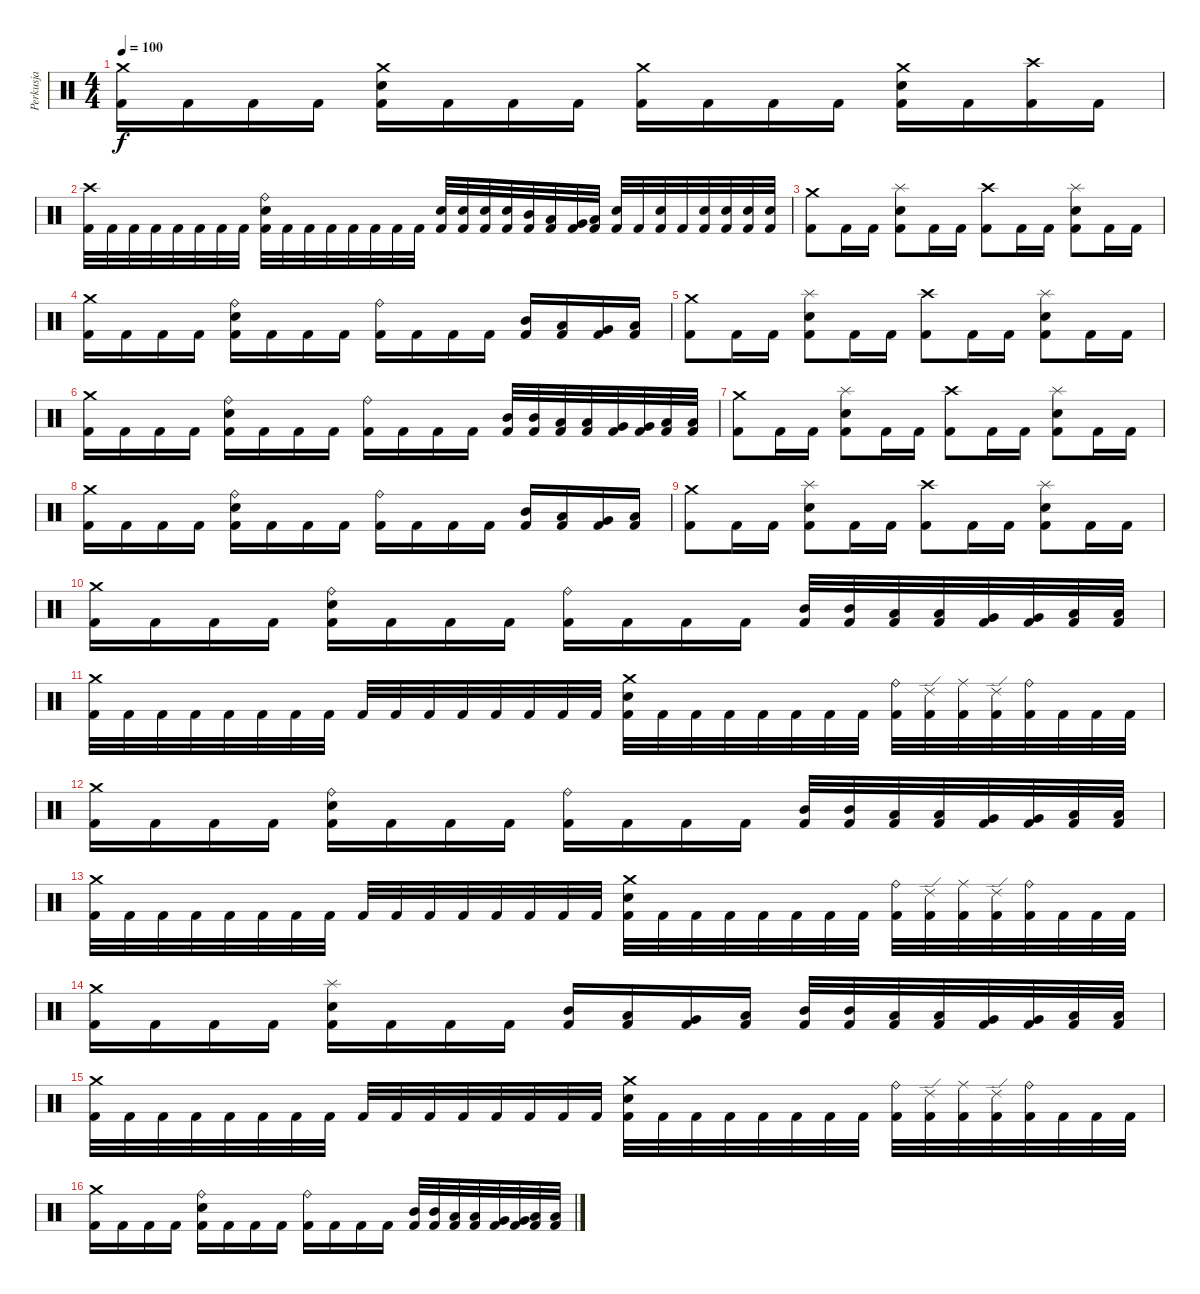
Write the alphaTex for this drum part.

\track ("Perkusja" "Perkusja") {instrument percussion}
\staff {score}
\articulation defaults
\ts (4 4)
\tempo 100
\clef neutral
\ks c
("Crash medium (hit)" "Kick (hit) 2").16{dy f} "Kick (hit) 2".16 "Kick (hit) 2".16 "Kick (hit) 2".16 ("Crash medium (hit)" "Electric Snare (hit)" "Kick (hit) 2").16 "Kick (hit) 2".16 "Kick (hit) 2".16 "Kick (hit) 2".16 ("Crash medium (hit)" "Kick (hit) 2").16 "Kick (hit) 2".16 "Kick (hit) 2".16 "Kick (hit) 2".16 ("Crash medium (hit)" "Electric Snare (hit)" "Kick (hit) 2").16 "Kick (hit) 2".16 ("Crash high (hit)" "Kick (hit) 2").16 "Kick (hit) 2".16 |
("Crash high (hit)" "Kick (hit) 2").32 "Kick (hit) 2".32 "Kick (hit) 2".32 "Kick (hit) 2".32 "Kick (hit) 2".32 "Kick (hit) 2".32 "Kick (hit) 2".32 "Kick (hit) 2".32 ("Ride (bell)" "Electric Snare (hit)" "Kick (hit) 2").32 "Kick (hit) 2".32 "Kick (hit) 2".32 "Kick (hit) 2".32 "Kick (hit) 2".32 "Kick (hit) 2".32 "Kick (hit) 2".32 "Kick (hit) 2".32 ("Electric Snare (hit)" "Kick (hit) 2").32 ("Electric Snare (hit)" "Kick (hit) 2").32 ("Electric Snare (hit)" "Kick (hit) 2").32 ("Electric Snare (hit)" "Kick (hit) 2").32 ("Mid Tom (hit)" "Kick (hit) 2").32 ("Low Tom (hit)" "Kick (hit) 2").32 ("Very Low Tom (hit)" "Kick (hit) 2").32 ("Low Floor Tom (hit)" "Kick (hit) 2").32 ("Electric Snare (hit)" "Kick (hit) 2").32 "Kick (hit) 2".32 ("Electric Snare (hit)" "Kick (hit) 2").32 "Kick (hit) 2".32 ("Electric Snare (hit)" "Kick (hit) 2").32 ("Electric Snare (hit)" "Kick (hit) 2").32 ("Electric Snare (hit)" "Kick (hit) 2").32 ("Electric Snare (hit)" "Kick (hit) 2").32 |
("Crash medium (hit)" "Kick (hit) 2").8 "Kick (hit) 2".16 "Kick (hit) 2".16 ("Splash (hit)" "Electric Snare (hit)" "Kick (hit) 2").8 "Kick (hit) 2".16 "Kick (hit) 2".16 ("Crash high (hit)" "Kick (hit) 2").8 "Kick (hit) 2".16 "Kick (hit) 2".16 ("Splash (hit)" "Electric Snare (hit)" "Kick (hit) 2").8 "Kick (hit) 2".16 "Kick (hit) 2".16 |
("Crash medium (hit)" "Kick (hit) 2").16 "Kick (hit) 2".16 "Kick (hit) 2".16 "Kick (hit) 2".16 ("Ride (bell)" "Electric Snare (hit)" "Kick (hit) 2").16 "Kick (hit) 2".16 "Kick (hit) 2".16 "Kick (hit) 2".16 ("Ride (bell)" "Kick (hit) 2").16 "Kick (hit) 2".16 "Kick (hit) 2".16 "Kick (hit) 2".16 ("Mid Tom (hit)" "Kick (hit) 2").16 ("Low Tom (hit)" "Kick (hit) 2").16 ("Very Low Tom (hit)" "Kick (hit) 2").16 ("Low Floor Tom (hit)" "Kick (hit) 2").16 |
("Crash medium (hit)" "Kick (hit) 2").8 "Kick (hit) 2".16 "Kick (hit) 2".16 ("Splash (hit)" "Electric Snare (hit)" "Kick (hit) 2").8 "Kick (hit) 2".16 "Kick (hit) 2".16 ("Crash high (hit)" "Kick (hit) 2").8 "Kick (hit) 2".16 "Kick (hit) 2".16 ("Splash (hit)" "Electric Snare (hit)" "Kick (hit) 2").8 "Kick (hit) 2".16 "Kick (hit) 2".16 |
("Crash medium (hit)" "Kick (hit) 2").16 "Kick (hit) 2".16 "Kick (hit) 2".16 "Kick (hit) 2".16 ("Ride (bell)" "Electric Snare (hit)" "Kick (hit) 2").16 "Kick (hit) 2".16 "Kick (hit) 2".16 "Kick (hit) 2".16 ("Ride (bell)" "Kick (hit) 2").16 "Kick (hit) 2".16 "Kick (hit) 2".16 "Kick (hit) 2".16 ("Mid Tom (hit)" "Kick (hit) 2").32 ("Mid Tom (hit)" "Kick (hit) 2").32 ("Low Tom (hit)" "Kick (hit) 2").32 ("Low Tom (hit)" "Kick (hit) 2").32 ("Very Low Tom (hit)" "Kick (hit) 2").32 ("Very Low Tom (hit)" "Kick (hit) 2").32 ("Low Floor Tom (hit)" "Kick (hit) 2").32 ("Low Floor Tom (hit)" "Kick (hit) 2").32 |
("Crash medium (hit)" "Kick (hit) 2").8 "Kick (hit) 2".16 "Kick (hit) 2".16 ("Splash (hit)" "Electric Snare (hit)" "Kick (hit) 2").8 "Kick (hit) 2".16 "Kick (hit) 2".16 ("Crash high (hit)" "Kick (hit) 2").8 "Kick (hit) 2".16 "Kick (hit) 2".16 ("Splash (hit)" "Electric Snare (hit)" "Kick (hit) 2").8 "Kick (hit) 2".16 "Kick (hit) 2".16 |
("Crash medium (hit)" "Kick (hit) 2").16 "Kick (hit) 2".16 "Kick (hit) 2".16 "Kick (hit) 2".16 ("Ride (bell)" "Electric Snare (hit)" "Kick (hit) 2").16 "Kick (hit) 2".16 "Kick (hit) 2".16 "Kick (hit) 2".16 ("Ride (bell)" "Kick (hit) 2").16 "Kick (hit) 2".16 "Kick (hit) 2".16 "Kick (hit) 2".16 ("Mid Tom (hit)" "Kick (hit) 2").16 ("Low Tom (hit)" "Kick (hit) 2").16 ("Very Low Tom (hit)" "Kick (hit) 2").16 ("Low Floor Tom (hit)" "Kick (hit) 2").16 |
("Crash medium (hit)" "Kick (hit) 2").8 "Kick (hit) 2".16 "Kick (hit) 2".16 ("Splash (hit)" "Electric Snare (hit)" "Kick (hit) 2").8 "Kick (hit) 2".16 "Kick (hit) 2".16 ("Crash high (hit)" "Kick (hit) 2").8 "Kick (hit) 2".16 "Kick (hit) 2".16 ("Splash (hit)" "Electric Snare (hit)" "Kick (hit) 2").8 "Kick (hit) 2".16 "Kick (hit) 2".16 |
("Crash medium (hit)" "Kick (hit) 2").16 "Kick (hit) 2".16 "Kick (hit) 2".16 "Kick (hit) 2".16 ("Ride (bell)" "Electric Snare (hit)" "Kick (hit) 2").16 "Kick (hit) 2".16 "Kick (hit) 2".16 "Kick (hit) 2".16 ("Ride (bell)" "Kick (hit) 2").16 "Kick (hit) 2".16 "Kick (hit) 2".16 "Kick (hit) 2".16 ("Mid Tom (hit)" "Kick (hit) 2").32 ("Mid Tom (hit)" "Kick (hit) 2").32 ("Low Tom (hit)" "Kick (hit) 2").32 ("Low Tom (hit)" "Kick (hit) 2").32 ("Very Low Tom (hit)" "Kick (hit) 2").32 ("Very Low Tom (hit)" "Kick (hit) 2").32 ("Low Floor Tom (hit)" "Kick (hit) 2").32 ("Low Floor Tom (hit)" "Kick (hit) 2").32 |
("Crash medium (hit)" "Kick (hit) 2").32 "Kick (hit) 2".32 "Kick (hit) 2".32 "Kick (hit) 2".32 "Kick (hit) 2".32 "Kick (hit) 2".32 "Kick (hit) 2".32 "Kick (hit) 2".32 "Kick (hit) 2".32 "Kick (hit) 2".32 "Kick (hit) 2".32 "Kick (hit) 2".32 "Kick (hit) 2".32 "Kick (hit) 2".32 "Kick (hit) 2".32 "Kick (hit) 2".32 ("Crash medium (hit)" "Electric Snare (hit)" "Kick (hit) 2").32 "Kick (hit) 2".32 "Kick (hit) 2".32 "Kick (hit) 2".32 "Kick (hit) 2".32 "Kick (hit) 2".32 "Kick (hit) 2".32 "Kick (hit) 2".32 ("Ride (bell)" "Kick (hit) 2").32 ("Ride (edge) 2" "Kick (hit) 2").32 ("Ride (middle)" "Kick (hit) 2").32 ("Ride (edge) 2" "Kick (hit) 2").32 ("Ride (bell)" "Kick (hit) 2").32 "Kick (hit) 2".32 "Kick (hit) 2".32 "Kick (hit) 2".32 |
("Crash medium (hit)" "Kick (hit) 2").16 "Kick (hit) 2".16 "Kick (hit) 2".16 "Kick (hit) 2".16 ("Ride (bell)" "Electric Snare (hit)" "Kick (hit) 2").16 "Kick (hit) 2".16 "Kick (hit) 2".16 "Kick (hit) 2".16 ("Ride (bell)" "Kick (hit) 2").16 "Kick (hit) 2".16 "Kick (hit) 2".16 "Kick (hit) 2".16 ("Mid Tom (hit)" "Kick (hit) 2").32 ("Mid Tom (hit)" "Kick (hit) 2").32 ("Low Tom (hit)" "Kick (hit) 2").32 ("Low Tom (hit)" "Kick (hit) 2").32 ("Very Low Tom (hit)" "Kick (hit) 2").32 ("Very Low Tom (hit)" "Kick (hit) 2").32 ("Low Floor Tom (hit)" "Kick (hit) 2").32 ("Low Floor Tom (hit)" "Kick (hit) 2").32 |
("Crash medium (hit)" "Kick (hit) 2").32 "Kick (hit) 2".32 "Kick (hit) 2".32 "Kick (hit) 2".32 "Kick (hit) 2".32 "Kick (hit) 2".32 "Kick (hit) 2".32 "Kick (hit) 2".32 "Kick (hit) 2".32 "Kick (hit) 2".32 "Kick (hit) 2".32 "Kick (hit) 2".32 "Kick (hit) 2".32 "Kick (hit) 2".32 "Kick (hit) 2".32 "Kick (hit) 2".32 ("Crash medium (hit)" "Electric Snare (hit)" "Kick (hit) 2").32 "Kick (hit) 2".32 "Kick (hit) 2".32 "Kick (hit) 2".32 "Kick (hit) 2".32 "Kick (hit) 2".32 "Kick (hit) 2".32 "Kick (hit) 2".32 ("Ride (bell)" "Kick (hit) 2").32 ("Ride (edge) 2" "Kick (hit) 2").32 ("Ride (middle)" "Kick (hit) 2").32 ("Ride (edge) 2" "Kick (hit) 2").32 ("Ride (bell)" "Kick (hit) 2").32 "Kick (hit) 2".32 "Kick (hit) 2".32 "Kick (hit) 2".32 |
("Crash medium (hit)" "Kick (hit) 2").16 "Kick (hit) 2".16 "Kick (hit) 2".16 "Kick (hit) 2".16 ("Splash (hit)" "Electric Snare (hit)" "Kick (hit) 2").16 "Kick (hit) 2".16 "Kick (hit) 2".16 "Kick (hit) 2".16 ("Mid Tom (hit)" "Kick (hit) 2").16 ("Low Tom (hit)" "Kick (hit) 2").16 ("Very Low Tom (hit)" "Kick (hit) 2").16 ("Low Floor Tom (hit)" "Kick (hit) 2").16 ("Mid Tom (hit)" "Kick (hit) 2").32 ("Mid Tom (hit)" "Kick (hit) 2").32 ("Low Tom (hit)" "Kick (hit) 2").32 ("Low Tom (hit)" "Kick (hit) 2").32 ("Very Low Tom (hit)" "Kick (hit) 2").32 ("Very Low Tom (hit)" "Kick (hit) 2").32 ("Low Floor Tom (hit)" "Kick (hit) 2").32 ("Low Floor Tom (hit)" "Kick (hit) 2").32 |
("Crash medium (hit)" "Kick (hit) 2").32 "Kick (hit) 2".32 "Kick (hit) 2".32 "Kick (hit) 2".32 "Kick (hit) 2".32 "Kick (hit) 2".32 "Kick (hit) 2".32 "Kick (hit) 2".32 "Kick (hit) 2".32 "Kick (hit) 2".32 "Kick (hit) 2".32 "Kick (hit) 2".32 "Kick (hit) 2".32 "Kick (hit) 2".32 "Kick (hit) 2".32 "Kick (hit) 2".32 ("Crash medium (hit)" "Electric Snare (hit)" "Kick (hit) 2").32 "Kick (hit) 2".32 "Kick (hit) 2".32 "Kick (hit) 2".32 "Kick (hit) 2".32 "Kick (hit) 2".32 "Kick (hit) 2".32 "Kick (hit) 2".32 ("Ride (bell)" "Kick (hit) 2").32 ("Ride (edge) 2" "Kick (hit) 2").32 ("Ride (middle)" "Kick (hit) 2").32 ("Ride (edge) 2" "Kick (hit) 2").32 ("Ride (bell)" "Kick (hit) 2").32 "Kick (hit) 2".32 "Kick (hit) 2".32 "Kick (hit) 2".32 |
("Crash medium (hit)" "Kick (hit) 2").16 "Kick (hit) 2".16 "Kick (hit) 2".16 "Kick (hit) 2".16 ("Ride (bell)" "Electric Snare (hit)" "Kick (hit) 2").16 "Kick (hit) 2".16 "Kick (hit) 2".16 "Kick (hit) 2".16 ("Ride (bell)" "Kick (hit) 2").16 "Kick (hit) 2".16 "Kick (hit) 2".16 "Kick (hit) 2".16 ("Mid Tom (hit)" "Kick (hit) 2").32 ("Mid Tom (hit)" "Kick (hit) 2").32 ("Low Tom (hit)" "Kick (hit) 2").32 ("Low Tom (hit)" "Kick (hit) 2").32 ("Very Low Tom (hit)" "Kick (hit) 2").32 ("Very Low Tom (hit)" "Kick (hit) 2").32 ("Low Floor Tom (hit)" "Kick (hit) 2").32 ("Low Floor Tom (hit)" "Kick (hit) 2").32
